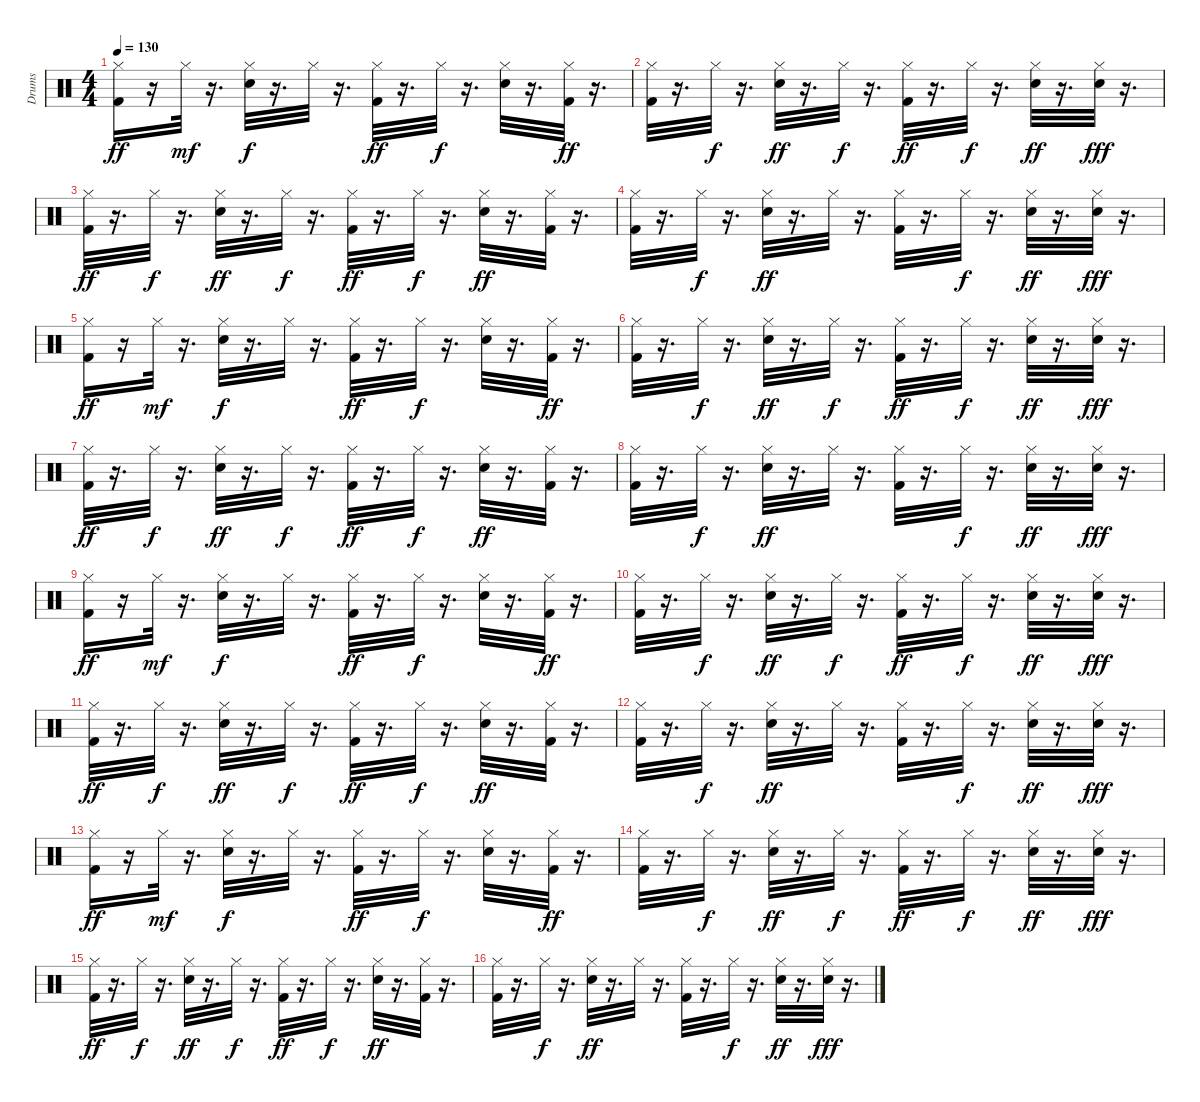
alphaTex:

\track ("Drums" "Drums") {instrument percussion}
\staff {score}
\articulation defaults
\ts (4 4)
\tempo 130
\clef neutral
\ks c
("Kick (hit) 2" "Hi-Hat (closed)").16{dy ff} r.16 "Hi-Hat (closed)".32{dy mf} r.16{d} ("Hi-Hat (closed)" "Snare (hit) 2").32{dy f} r.16{d} "Hi-Hat (closed)".32 r.16{d} ("Hi-Hat (closed)" "Kick (hit) 2").32{dy ff} r.16{d} "Hi-Hat (closed)".32{dy f} r.16{d} ("Snare (hit) 2" "Hi-Hat (closed)").32 r.16{d} ("Kick (hit) 2" "Hi-Hat (closed)").32{dy ff} r.16{d} |
("Kick (hit) 2" "Hi-Hat (closed)").32 r.16{d} "Hi-Hat (closed)".32{dy f} r.16{d} ("Hi-Hat (closed)" "Snare (hit) 2").32{dy ff} r.16{d} "Hi-Hat (closed)".32{dy f} r.16{d} ("Hi-Hat (closed)" "Kick (hit) 2").32{dy ff} r.16{d} "Hi-Hat (closed)".32{dy f} r.16{d} ("Snare (hit) 2" "Hi-Hat (closed)").32{dy ff} r.16{d} ("Hand Clap (hit)" "Hi-Hat (closed)").32{dy fff} r.16{d} |
("Hi-Hat (closed)" "Kick (hit) 2").32{dy ff} r.16{d} "Hi-Hat (closed)".32{dy f} r.16{d} ("Hi-Hat (closed)" "Snare (hit) 2").32{dy ff} r.16{d} "Hi-Hat (closed)".32{dy f} r.16{d} ("Hi-Hat (closed)" "Kick (hit) 2").32{dy ff} r.16{d} "Hi-Hat (closed)".32{dy f} r.16{d} ("Hi-Hat (closed)" "Snare (hit) 2").32{dy ff} r.16{d} ("Kick (hit) 2" "Hi-Hat (closed)").32 r.16{d} |
("Kick (hit) 2" "Hi-Hat (closed)").32 r.16{d} "Hi-Hat (closed)".32{dy f} r.16{d} ("Snare (hit) 2" "Hi-Hat (closed)").32{dy ff} r.16{d} "Hi-Hat (closed)".32 r.16{d} ("Kick (hit) 2" "Hi-Hat (closed)").32 r.16{d} "Hi-Hat (closed)".32{dy f} r.16{d} ("Hi-Hat (closed)" "Snare (hit) 2").32{dy ff} r.16{d} ("Hi-Hat (closed)" "Hand Clap (hit)").32{dy fff} r.16{d} |
("Kick (hit) 2" "Hi-Hat (closed)").16{dy ff} r.16 "Hi-Hat (closed)".32{dy mf} r.16{d} ("Hi-Hat (closed)" "Snare (hit) 2").32{dy f} r.16{d} "Hi-Hat (closed)".32 r.16{d} ("Hi-Hat (closed)" "Kick (hit) 2").32{dy ff} r.16{d} "Hi-Hat (closed)".32{dy f} r.16{d} ("Hi-Hat (closed)" "Snare (hit) 2").32 r.16{d} ("Hi-Hat (closed)" "Kick (hit) 2").32{dy ff} r.16{d} |
("Hi-Hat (closed)" "Kick (hit) 2").32 r.16{d} "Hi-Hat (closed)".32{dy f} r.16{d} ("Hi-Hat (closed)" "Snare (hit) 2").32{dy ff} r.16{d} "Hi-Hat (closed)".32{dy f} r.16{d} ("Hi-Hat (closed)" "Kick (hit) 2").32{dy ff} r.16{d} "Hi-Hat (closed)".32{dy f} r.16{d} ("Hi-Hat (closed)" "Snare (hit) 2").32{dy ff} r.16{d} ("Hi-Hat (closed)" "Hand Clap (hit)").32{dy fff} r.16{d} |
("Kick (hit) 2" "Hi-Hat (closed)").32{dy ff} r.16{d} "Hi-Hat (closed)".32{dy f} r.16{d} ("Hi-Hat (closed)" "Snare (hit) 2").32{dy ff} r.16{d} "Hi-Hat (closed)".32{dy f} r.16{d} ("Hi-Hat (closed)" "Kick (hit) 2").32{dy ff} r.16{d} "Hi-Hat (closed)".32{dy f} r.16{d} ("Snare (hit) 2" "Hi-Hat (closed)").32{dy ff} r.16{d} ("Hi-Hat (closed)" "Kick (hit) 2").32 r.16{d} |
("Hi-Hat (closed)" "Kick (hit) 2").32 r.16{d} "Hi-Hat (closed)".32{dy f} r.16{d} ("Hi-Hat (closed)" "Snare (hit) 2").32{dy ff} r.16{d} "Hi-Hat (closed)".32 r.16{d} ("Hi-Hat (closed)" "Kick (hit) 2").32 r.16{d} "Hi-Hat (closed)".32{dy f} r.16{d} ("Snare (hit) 2" "Hi-Hat (closed)").32{dy ff} r.16{d} ("Hi-Hat (closed)" "Hand Clap (hit)").32{dy fff} r.16{d} |
("Hi-Hat (closed)" "Kick (hit) 2").16{dy ff} r.16 "Hi-Hat (closed)".32{dy mf} r.16{d} ("Hi-Hat (closed)" "Snare (hit) 2").32{dy f} r.16{d} "Hi-Hat (closed)".32 r.16{d} ("Hi-Hat (closed)" "Kick (hit) 2").32{dy ff} r.16{d} "Hi-Hat (closed)".32{dy f} r.16{d} ("Snare (hit) 2" "Hi-Hat (closed)").32 r.16{d} ("Kick (hit) 2" "Hi-Hat (closed)").32{dy ff} r.16{d} |
("Kick (hit) 2" "Hi-Hat (closed)").32 r.16{d} "Hi-Hat (closed)".32{dy f} r.16{d} ("Snare (hit) 2" "Hi-Hat (closed)").32{dy ff} r.16{d} "Hi-Hat (closed)".32{dy f} r.16{d} ("Kick (hit) 2" "Hi-Hat (closed)").32{dy ff} r.16{d} "Hi-Hat (closed)".32{dy f} r.16{d} ("Hi-Hat (closed)" "Snare (hit) 2").32{dy ff} r.16{d} ("Hand Clap (hit)" "Hi-Hat (closed)").32{dy fff} r.16{d} |
("Hi-Hat (closed)" "Kick (hit) 2").32{dy ff} r.16{d} "Hi-Hat (closed)".32{dy f} r.16{d} ("Hi-Hat (closed)" "Snare (hit) 2").32{dy ff} r.16{d} "Hi-Hat (closed)".32{dy f} r.16{d} ("Kick (hit) 2" "Hi-Hat (closed)").32{dy ff} r.16{d} "Hi-Hat (closed)".32{dy f} r.16{d} ("Hi-Hat (closed)" "Snare (hit) 2").32{dy ff} r.16{d} ("Hi-Hat (closed)" "Kick (hit) 2").32 r.16{d} |
("Hi-Hat (closed)" "Kick (hit) 2").32 r.16{d} "Hi-Hat (closed)".32{dy f} r.16{d} ("Hi-Hat (closed)" "Snare (hit) 2").32{dy ff} r.16{d} "Hi-Hat (closed)".32 r.16{d} ("Hi-Hat (closed)" "Kick (hit) 2").32 r.16{d} "Hi-Hat (closed)".32{dy f} r.16{d} ("Snare (hit) 2" "Hi-Hat (closed)").32{dy ff} r.16{d} ("Hi-Hat (closed)" "Hand Clap (hit)").32{dy fff} r.16{d} |
("Kick (hit) 2" "Hi-Hat (closed)").16{dy ff} r.16 "Hi-Hat (closed)".32{dy mf} r.16{d} ("Hi-Hat (closed)" "Snare (hit) 2").32{dy f} r.16{d} "Hi-Hat (closed)".32 r.16{d} ("Hi-Hat (closed)" "Kick (hit) 2").32{dy ff} r.16{d} "Hi-Hat (closed)".32{dy f} r.16{d} ("Hi-Hat (closed)" "Snare (hit) 2").32 r.16{d} ("Kick (hit) 2" "Hi-Hat (closed)").32{dy ff} r.16{d} |
("Hi-Hat (closed)" "Kick (hit) 2").32 r.16{d} "Hi-Hat (closed)".32{dy f} r.16{d} ("Snare (hit) 2" "Hi-Hat (closed)").32{dy ff} r.16{d} "Hi-Hat (closed)".32{dy f} r.16{d} ("Kick (hit) 2" "Hi-Hat (closed)").32{dy ff} r.16{d} "Hi-Hat (closed)".32{dy f} r.16{d} ("Hi-Hat (closed)" "Snare (hit) 2").32{dy ff} r.16{d} ("Hi-Hat (closed)" "Hand Clap (hit)").32{dy fff} r.16{d} |
("Kick (hit) 2" "Hi-Hat (closed)").32{dy ff} r.16{d} "Hi-Hat (closed)".32{dy f} r.16{d} ("Snare (hit) 2" "Hi-Hat (closed)").32{dy ff} r.16{d} "Hi-Hat (closed)".32{dy f} r.16{d} ("Hi-Hat (closed)" "Kick (hit) 2").32{dy ff} r.16{d} "Hi-Hat (closed)".32{dy f} r.16{d} ("Hi-Hat (closed)" "Snare (hit) 2").32{dy ff} r.16{d} ("Hi-Hat (closed)" "Kick (hit) 2").32 r.16{d} |
("Hi-Hat (closed)" "Kick (hit) 2").32 r.16{d} "Hi-Hat (closed)".32{dy f} r.16{d} ("Hi-Hat (closed)" "Snare (hit) 2").32{dy ff} r.16{d} "Hi-Hat (closed)".32 r.16{d} ("Hi-Hat (closed)" "Kick (hit) 2").32 r.16{d} "Hi-Hat (closed)".32{dy f} r.16{d} ("Hi-Hat (closed)" "Snare (hit) 2").32{dy ff} r.16{d} ("Hi-Hat (closed)" "Hand Clap (hit)").32{dy fff} r.16{d}
